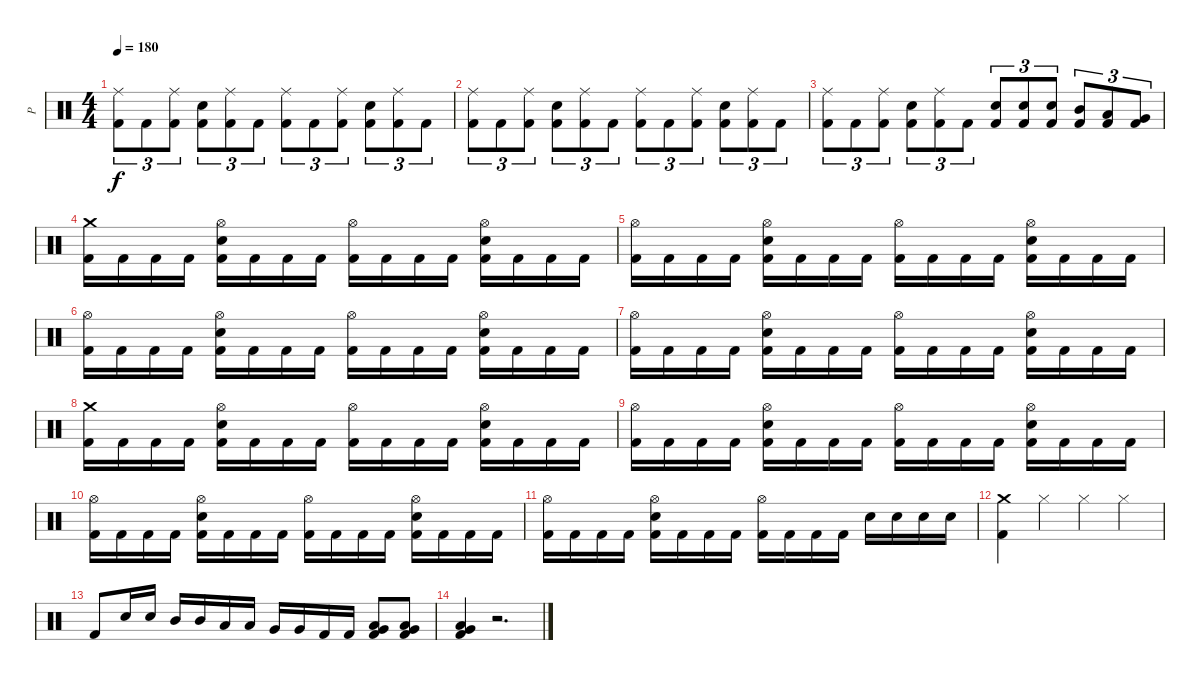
\track ("P" "P") {instrument percussion}
\staff {score}
\articulation defaults
\ts (4 4)
\tempo 180
\clef neutral
\ks c
("Ride (middle)" "Kick (hit) 2").8{tu (3 2) dy f} "Kick (hit) 2".8{tu (3 2)} ("Ride (middle)" "Kick (hit) 2").8{tu (3 2)} ("Electric Snare (hit)" "Kick (hit) 2").8{tu (3 2)} ("Ride (middle)" "Kick (hit) 2").8{tu (3 2)} "Kick (hit) 2".8{tu (3 2)} ("Ride (middle)" "Kick (hit) 2").8{tu (3 2)} "Kick (hit) 2".8{tu (3 2)} ("Ride (middle)" "Kick (hit) 2").8{tu (3 2)} ("Electric Snare (hit)" "Kick (hit) 2").8{tu (3 2)} ("Ride (middle)" "Kick (hit) 2").8{tu (3 2)} "Kick (hit) 2".8{tu (3 2)} |
("Ride (middle)" "Kick (hit) 2").8{tu (3 2)} "Kick (hit) 2".8{tu (3 2)} ("Ride (middle)" "Kick (hit) 2").8{tu (3 2)} ("Electric Snare (hit)" "Kick (hit) 2").8{tu (3 2)} ("Ride (middle)" "Kick (hit) 2").8{tu (3 2)} "Kick (hit) 2".8{tu (3 2)} ("Ride (middle)" "Kick (hit) 2").8{tu (3 2)} "Kick (hit) 2".8{tu (3 2)} ("Ride (middle)" "Kick (hit) 2").8{tu (3 2)} ("Electric Snare (hit)" "Kick (hit) 2").8{tu (3 2)} ("Ride (middle)" "Kick (hit) 2").8{tu (3 2)} "Kick (hit) 2".8{tu (3 2)} |
("Ride (middle)" "Kick (hit) 2").8{tu (3 2)} "Kick (hit) 2".8{tu (3 2)} ("Ride (middle)" "Kick (hit) 2").8{tu (3 2)} ("Electric Snare (hit)" "Kick (hit) 2").8{tu (3 2)} ("Ride (middle)" "Kick (hit) 2").8{tu (3 2)} "Kick (hit) 2".8{tu (3 2)} ("Electric Snare (hit)" "Kick (hit) 2").8{tu (3 2)} ("Electric Snare (hit)" "Kick (hit) 2").8{tu (3 2)} ("Electric Snare (hit)" "Kick (hit) 2").8{tu (3 2)} ("Mid Tom (hit)" "Kick (hit) 2").8{tu (3 2)} ("Low Tom (hit)" "Kick (hit) 2").8{tu (3 2)} ("Very Low Tom (hit)" "Kick (hit) 2").8{tu (3 2)} |
("Crash medium (hit)" "Kick (hit) 2").16 "Kick (hit) 2".16 "Kick (hit) 2".16 "Kick (hit) 2".16 ("Hi-Hat (open)" "Electric Snare (hit)" "Kick (hit) 2").16 "Kick (hit) 2".16 "Kick (hit) 2".16 "Kick (hit) 2".16 ("Hi-Hat (open)" "Kick (hit) 2").16 "Kick (hit) 2".16 "Kick (hit) 2".16 "Kick (hit) 2".16 ("Hi-Hat (open)" "Electric Snare (hit)" "Kick (hit) 2").16 "Kick (hit) 2".16 "Kick (hit) 2".16 "Kick (hit) 2".16 |
("Hi-Hat (open)" "Kick (hit) 2").16 "Kick (hit) 2".16 "Kick (hit) 2".16 "Kick (hit) 2".16 ("Hi-Hat (open)" "Electric Snare (hit)" "Kick (hit) 2").16 "Kick (hit) 2".16 "Kick (hit) 2".16 "Kick (hit) 2".16 ("Hi-Hat (open)" "Kick (hit) 2").16 "Kick (hit) 2".16 "Kick (hit) 2".16 "Kick (hit) 2".16 ("Hi-Hat (open)" "Electric Snare (hit)" "Kick (hit) 2").16 "Kick (hit) 2".16 "Kick (hit) 2".16 "Kick (hit) 2".16 |
("Hi-Hat (open)" "Kick (hit) 2").16 "Kick (hit) 2".16 "Kick (hit) 2".16 "Kick (hit) 2".16 ("Hi-Hat (open)" "Electric Snare (hit)" "Kick (hit) 2").16 "Kick (hit) 2".16 "Kick (hit) 2".16 "Kick (hit) 2".16 ("Hi-Hat (open)" "Kick (hit) 2").16 "Kick (hit) 2".16 "Kick (hit) 2".16 "Kick (hit) 2".16 ("Hi-Hat (open)" "Electric Snare (hit)" "Kick (hit) 2").16 "Kick (hit) 2".16 "Kick (hit) 2".16 "Kick (hit) 2".16 |
("Hi-Hat (open)" "Kick (hit) 2").16 "Kick (hit) 2".16 "Kick (hit) 2".16 "Kick (hit) 2".16 ("Hi-Hat (open)" "Electric Snare (hit)" "Kick (hit) 2").16 "Kick (hit) 2".16 "Kick (hit) 2".16 "Kick (hit) 2".16 ("Hi-Hat (open)" "Kick (hit) 2").16 "Kick (hit) 2".16 "Kick (hit) 2".16 "Kick (hit) 2".16 ("Hi-Hat (open)" "Electric Snare (hit)" "Kick (hit) 2").16 "Kick (hit) 2".16 "Kick (hit) 2".16 "Kick (hit) 2".16 |
("Crash medium (hit)" "Kick (hit) 2").16 "Kick (hit) 2".16 "Kick (hit) 2".16 "Kick (hit) 2".16 ("Hi-Hat (open)" "Electric Snare (hit)" "Kick (hit) 2").16 "Kick (hit) 2".16 "Kick (hit) 2".16 "Kick (hit) 2".16 ("Hi-Hat (open)" "Kick (hit) 2").16 "Kick (hit) 2".16 "Kick (hit) 2".16 "Kick (hit) 2".16 ("Hi-Hat (open)" "Electric Snare (hit)" "Kick (hit) 2").16 "Kick (hit) 2".16 "Kick (hit) 2".16 "Kick (hit) 2".16 |
("Hi-Hat (open)" "Kick (hit) 2").16 "Kick (hit) 2".16 "Kick (hit) 2".16 "Kick (hit) 2".16 ("Hi-Hat (open)" "Electric Snare (hit)" "Kick (hit) 2").16 "Kick (hit) 2".16 "Kick (hit) 2".16 "Kick (hit) 2".16 ("Hi-Hat (open)" "Kick (hit) 2").16 "Kick (hit) 2".16 "Kick (hit) 2".16 "Kick (hit) 2".16 ("Hi-Hat (open)" "Electric Snare (hit)" "Kick (hit) 2").16 "Kick (hit) 2".16 "Kick (hit) 2".16 "Kick (hit) 2".16 |
("Hi-Hat (open)" "Kick (hit) 2").16 "Kick (hit) 2".16 "Kick (hit) 2".16 "Kick (hit) 2".16 ("Hi-Hat (open)" "Electric Snare (hit)" "Kick (hit) 2").16 "Kick (hit) 2".16 "Kick (hit) 2".16 "Kick (hit) 2".16 ("Hi-Hat (open)" "Kick (hit) 2").16 "Kick (hit) 2".16 "Kick (hit) 2".16 "Kick (hit) 2".16 ("Hi-Hat (open)" "Electric Snare (hit)" "Kick (hit) 2").16 "Kick (hit) 2".16 "Kick (hit) 2".16 "Kick (hit) 2".16 |
("Hi-Hat (open)" "Kick (hit) 2").16 "Kick (hit) 2".16 "Kick (hit) 2".16 "Kick (hit) 2".16 ("Hi-Hat (open)" "Electric Snare (hit)" "Kick (hit) 2").16 "Kick (hit) 2".16 "Kick (hit) 2".16 "Kick (hit) 2".16 ("Hi-Hat (open)" "Kick (hit) 2").16 "Kick (hit) 2".16 "Kick (hit) 2".16 "Kick (hit) 2".16 "Electric Snare (hit)".16 "Electric Snare (hit)".16 "Electric Snare (hit)".16 "Electric Snare (hit)".16 |
("Crash medium (hit)" "Kick (hit) 2").4 "Hi-Hat (closed)".4 "Hi-Hat (closed)".4 "Hi-Hat (closed)".4 |
"Kick (hit) 2".8 "Electric Snare (hit)".16 "Electric Snare (hit)".16 "Mid Tom (hit)".16 "Mid Tom (hit)".16 "Low Tom (hit)".16 "Low Tom (hit)".16 "Very Low Tom (hit)".16 "Very Low Tom (hit)".16 "Kick (hit) 2".16 "Kick (hit) 2".16 ("Very Low Tom (hit)" "Low Tom (hit)" "Kick (hit) 2").8 ("Very Low Tom (hit)" "Low Tom (hit)" "Kick (hit) 2").8 |
("Very Low Tom (hit)" "Low Tom (hit)" "Kick (hit) 2").4 r.2{d}
